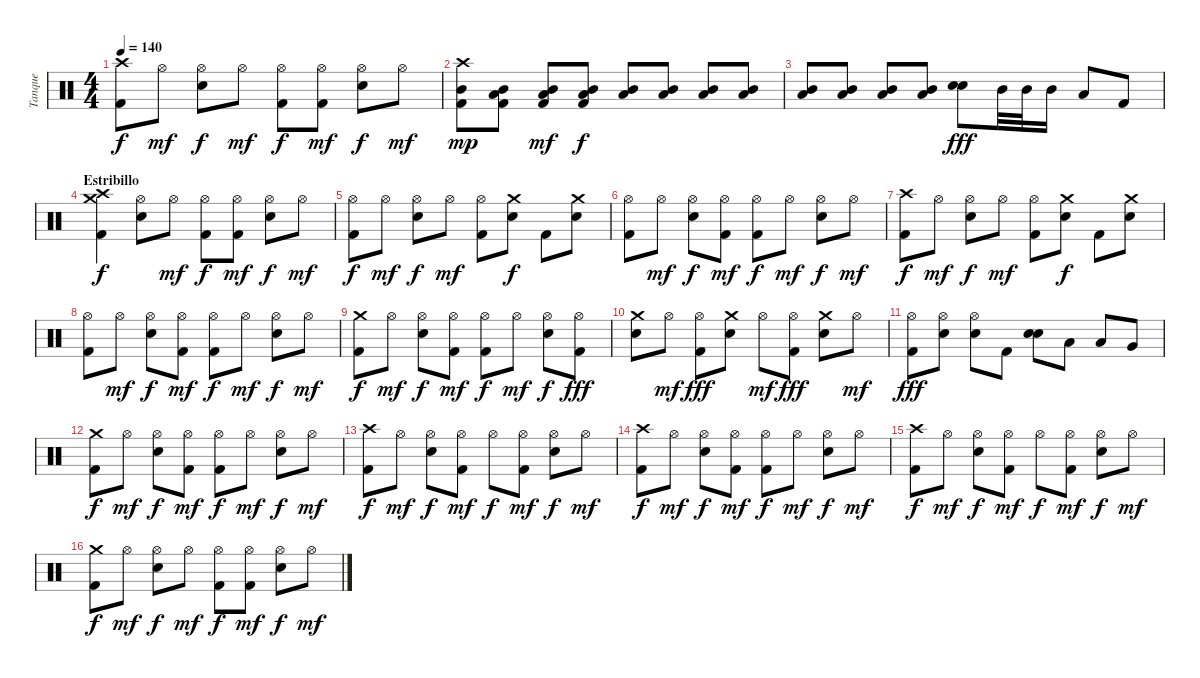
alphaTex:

\track ("Tanque" "Tanque") {instrument percussion}
\staff {score}
\articulation defaults
\ts (4 4)
\tempo 140
\clef neutral
\ks c
("Crash high (hit)" "Kick (hit) 2").8{dy f} "Hi-Hat (open)".8{dy mf} ("Hi-Hat (open)" "Electric Snare (hit)").8{dy f} "Hi-Hat (open)".8{dy mf} ("Hi-Hat (open)" "Kick (hit) 2").8{dy f} ("Hi-Hat (open)" "Kick (hit) 2").8{dy mf} ("Hi-Hat (open)" "Electric Snare (hit)").8{dy f} "Hi-Hat (open)".8{dy mf} |
("Crash high (hit)" "Mid Tom (hit)" "Kick (hit) 2").8{dy mp} ("Mid Tom (hit)" "Low Tom (hit)" "Kick (hit) 2").8 ("Mid Tom (hit)" "Low Tom (hit)" "Kick (hit) 2").8{dy mf} ("Mid Tom (hit)" "Low Tom (hit)" "Kick (hit) 2").8{dy f} ("Mid Tom (hit)" "Low Tom (hit)").8 ("Mid Tom (hit)" "Low Tom (hit)").8 ("Mid Tom (hit)" "Low Tom (hit)").8 ("Mid Tom (hit)" "Low Tom (hit)").8 |
("Mid Tom (hit)" "Low Tom (hit)").8 ("Mid Tom (hit)" "Low Tom (hit)").8 ("Mid Tom (hit)" "Low Tom (hit)").8 ("Mid Tom (hit)" "Low Tom (hit)").8 ("Electric Snare (hit)" "Electric Snare (hit)").8{dy fff} "Mid Tom (hit)".32 "Mid Tom (hit)".32 "Mid Tom (hit)".16 "Low Tom (hit)".8 "Kick (hit) 2".8 |
\section ("" "Estribillo")
("Crash high (hit)" "Crash medium (hit)" "Kick (hit) 2").4{dy f} ("Hi-Hat (open)" "Electric Snare (hit)").8 "Hi-Hat (open)".8{dy mf} ("Hi-Hat (open)" "Kick (hit) 2").8{dy f} ("Hi-Hat (open)" "Kick (hit) 2").8{dy mf} ("Hi-Hat (open)" "Electric Snare (hit)").8{dy f} "Hi-Hat (open)".8{dy mf} |
("Hi-Hat (open)" "Kick (hit) 2").8{dy f} "Hi-Hat (open)".8{dy mf} ("Hi-Hat (open)" "Electric Snare (hit)").8{dy f} "Hi-Hat (open)".8{dy mf} ("Hi-Hat (open)" "Kick (hit) 2").8 ("Crash medium (hit)" "Electric Snare (hit)").8{dy f} "Kick (hit) 2".8 ("Crash medium (hit)" "Electric Snare (hit)").8 |
("Hi-Hat (open)" "Kick (hit) 2").8 "Hi-Hat (open)".8{dy mf} ("Hi-Hat (open)" "Electric Snare (hit)").8{dy f} ("Hi-Hat (open)" "Kick (hit) 2").8{dy mf} ("Hi-Hat (open)" "Kick (hit) 2").8{dy f} "Hi-Hat (open)".8{dy mf} ("Hi-Hat (open)" "Electric Snare (hit)").8{dy f} "Hi-Hat (open)".8{dy mf} |
("Crash high (hit)" "Kick (hit) 2").8{dy f} "Hi-Hat (open)".8{dy mf} ("Hi-Hat (open)" "Electric Snare (hit)").8{dy f} "Hi-Hat (open)".8{dy mf} ("Hi-Hat (open)" "Kick (hit) 2").8 ("Crash medium (hit)" "Electric Snare (hit)").8{dy f} "Kick (hit) 2".8 ("Crash medium (hit)" "Electric Snare (hit)").8 |
("Hi-Hat (open)" "Kick (hit) 2").8 "Hi-Hat (open)".8{dy mf} ("Hi-Hat (open)" "Electric Snare (hit)").8{dy f} ("Hi-Hat (open)" "Kick (hit) 2").8{dy mf} ("Hi-Hat (open)" "Kick (hit) 2").8{dy f} "Hi-Hat (open)".8{dy mf} ("Hi-Hat (open)" "Electric Snare (hit)").8{dy f} "Hi-Hat (open)".8{dy mf} |
("Crash medium (hit)" "Kick (hit) 2").8{dy f} "Hi-Hat (open)".8{dy mf} ("Hi-Hat (open)" "Electric Snare (hit)").8{dy f} ("Hi-Hat (open)" "Kick (hit) 2").8{dy mf} ("Hi-Hat (open)" "Kick (hit) 2").8{dy f} "Hi-Hat (open)".8{dy mf} ("Hi-Hat (open)" "Electric Snare (hit)").8{dy f} ("Hi-Hat (open)" "Kick (hit) 2").8{dy fff} |
("Crash medium (hit)" "Electric Snare (hit)").8 "Hi-Hat (open)".8{dy mf} ("Hi-Hat (open)" "Kick (hit) 2").8{dy fff} ("Crash medium (hit)" "Electric Snare (hit)").8 "Hi-Hat (open)".8{dy mf} ("Hi-Hat (open)" "Kick (hit) 2").8{dy fff} ("Crash medium (hit)" "Electric Snare (hit)").8 "Hi-Hat (open)".8{dy mf} |
("Hi-Hat (open)" "Kick (hit) 2").8{dy fff} ("Hi-Hat (open)" "Electric Snare (hit)").8 ("Hi-Hat (open)" "Electric Snare (hit)").8 "Kick (hit) 2".8 ("Electric Snare (hit)" "Electric Snare (hit)").8 "Low Tom (hit)".8 "Low Tom (hit)".8 "Very Low Tom (hit)".8 |
("Crash medium (hit)" "Kick (hit) 2").8{dy f} "Hi-Hat (open)".8{dy mf} ("Hi-Hat (open)" "Electric Snare (hit)").8{dy f} ("Hi-Hat (open)" "Kick (hit) 2").8{dy mf} ("Hi-Hat (open)" "Kick (hit) 2").8{dy f} "Hi-Hat (open)".8{dy mf} ("Hi-Hat (open)" "Electric Snare (hit)").8{dy f} "Hi-Hat (open)".8{dy mf} |
("Crash high (hit)" "Kick (hit) 2").8{dy f} "Hi-Hat (open)".8{dy mf} ("Hi-Hat (open)" "Electric Snare (hit)").8{dy f} ("Hi-Hat (open)" "Kick (hit) 2").8{dy mf} "Hi-Hat (open)".8{dy f} ("Hi-Hat (open)" "Kick (hit) 2").8{dy mf} ("Hi-Hat (open)" "Electric Snare (hit)").8{dy f} "Hi-Hat (open)".8{dy mf} |
("Crash high (hit)" "Kick (hit) 2").8{dy f} "Hi-Hat (open)".8{dy mf} ("Hi-Hat (open)" "Electric Snare (hit)").8{dy f} ("Hi-Hat (open)" "Kick (hit) 2").8{dy mf} ("Hi-Hat (open)" "Kick (hit) 2").8{dy f} "Hi-Hat (open)".8{dy mf} ("Hi-Hat (open)" "Electric Snare (hit)").8{dy f} "Hi-Hat (open)".8{dy mf} |
("Crash high (hit)" "Kick (hit) 2").8{dy f} "Hi-Hat (open)".8{dy mf} ("Hi-Hat (open)" "Electric Snare (hit)").8{dy f} ("Hi-Hat (open)" "Kick (hit) 2").8{dy mf} "Hi-Hat (open)".8{dy f} ("Hi-Hat (open)" "Kick (hit) 2").8{dy mf} ("Hi-Hat (open)" "Electric Snare (hit)").8{dy f} "Hi-Hat (open)".8{dy mf} |
("Crash medium (hit)" "Kick (hit) 2").8{dy f} "Hi-Hat (open)".8{dy mf} ("Hi-Hat (open)" "Electric Snare (hit)").8{dy f} "Hi-Hat (open)".8{dy mf} ("Hi-Hat (open)" "Kick (hit) 2").8{dy f} ("Hi-Hat (open)" "Kick (hit) 2").8{dy mf} ("Hi-Hat (open)" "Electric Snare (hit)").8{dy f} "Hi-Hat (open)".8{dy mf}
